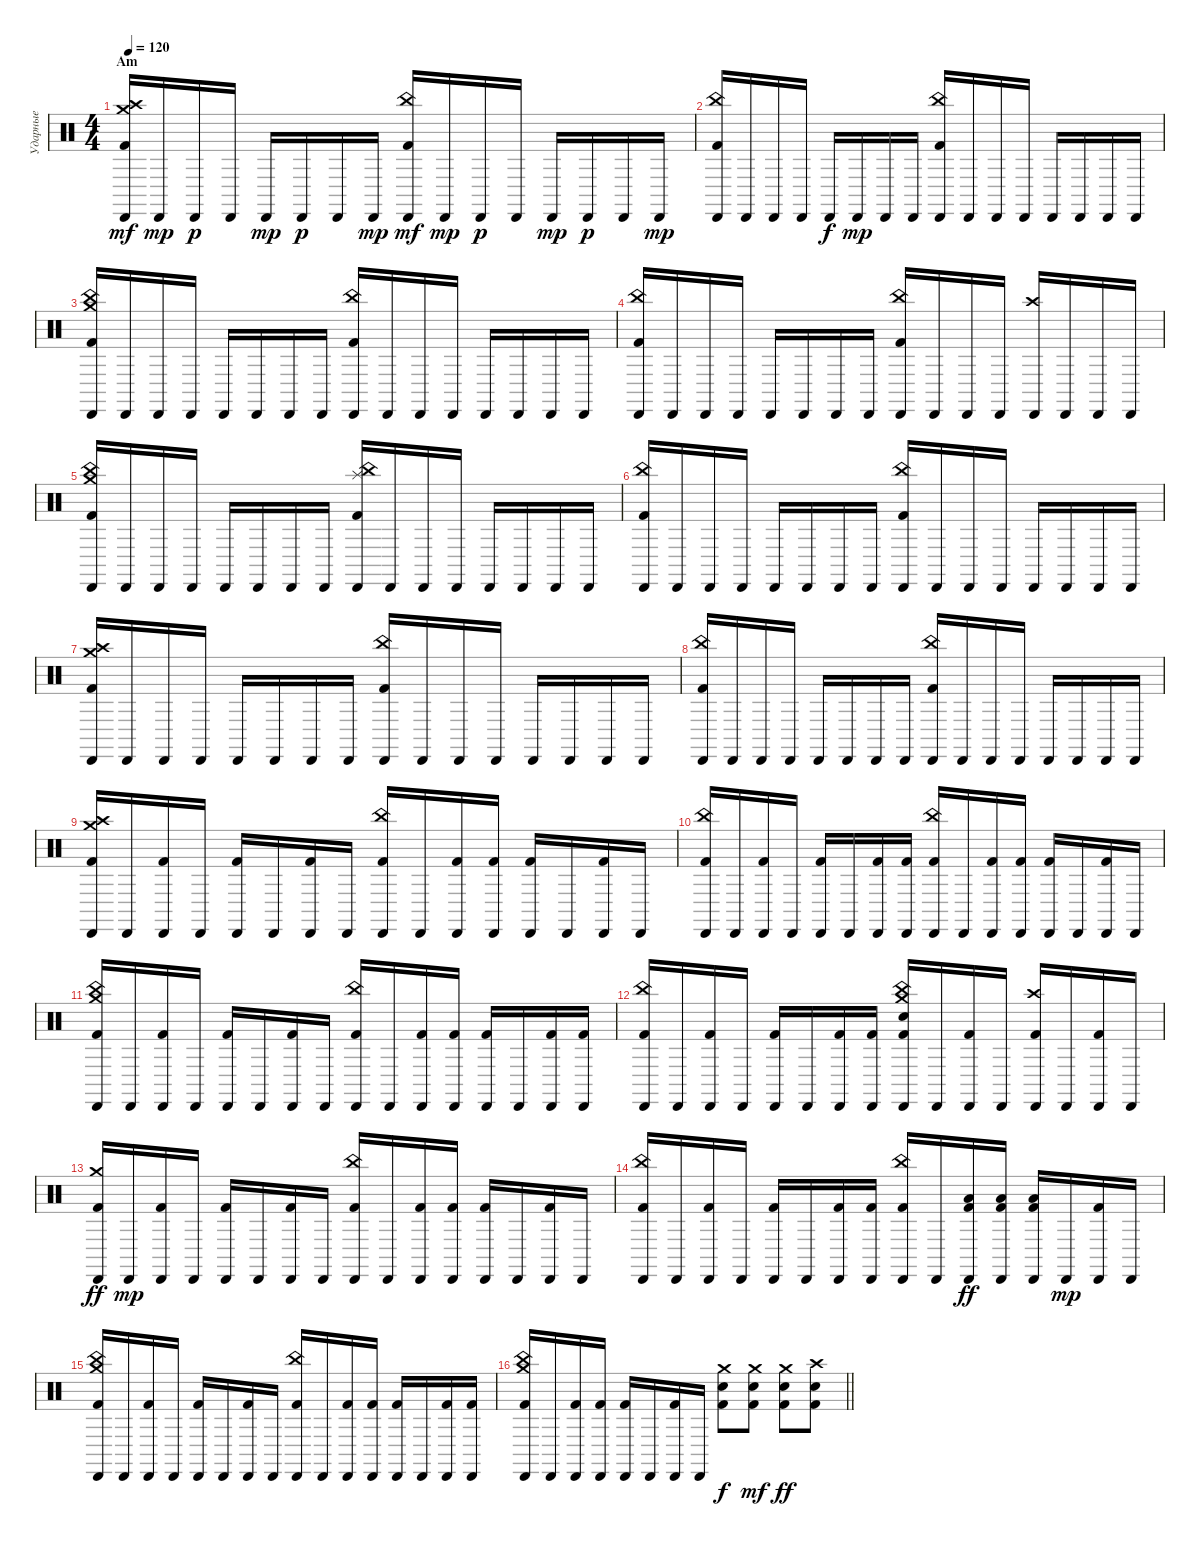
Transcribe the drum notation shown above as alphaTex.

\track ("Ударные" "Ударные") {instrument percussion}
\staff {score}
\articulation defaults
\ts (4 4)
\section ("" "Am")
\tempo 120
\clef neutral
\ks aminor
("Cabasa (hit)" "Crash medium (hit)" "Kick (hit) 2" "Crash high (hit)").16{dy mf} "Cabasa (hit)".16{dy mp} "Cabasa (hit)".16{dy p} "Cabasa (hit)".16 "Cabasa (hit)".16{dy mp} "Cabasa (hit)".16{dy p} "Cabasa (hit)".16 "Cabasa (hit)".16{dy mp} ("Cabasa (hit)" "China (hit)" "Kick (hit) 2").16{dy mf} "Cabasa (hit)".16{dy mp} "Cabasa (hit)".16{dy p} "Cabasa (hit)".16 "Cabasa (hit)".16{dy mp} "Cabasa (hit)".16{dy p} "Cabasa (hit)".16 "Cabasa (hit)".16{dy mp} |
("Cabasa (hit)" "China (hit)" "Kick (hit) 2").16 "Cabasa (hit)".16 "Cabasa (hit)".16 "Cabasa (hit)".16 "Cabasa (hit)".16{dy f} "Cabasa (hit)".16{dy mp} "Cabasa (hit)".16 "Cabasa (hit)".16 ("Cabasa (hit)" "China (hit)" "Kick (hit) 2").16 "Cabasa (hit)".16 "Cabasa (hit)".16 "Cabasa (hit)".16 "Cabasa (hit)".16 "Cabasa (hit)".16 "Cabasa (hit)".16 "Cabasa (hit)".16 |
("Cabasa (hit)" "Crash medium (hit)" "Kick (hit) 2" "China (hit)").16 "Cabasa (hit)".16 "Cabasa (hit)".16 "Cabasa (hit)".16 "Cabasa (hit)".16 "Cabasa (hit)".16 "Cabasa (hit)".16 "Cabasa (hit)".16 ("Cabasa (hit)" "China (hit)" "Kick (hit) 2").16 "Cabasa (hit)".16 "Cabasa (hit)".16 "Cabasa (hit)".16 "Cabasa (hit)".16 "Cabasa (hit)".16 "Cabasa (hit)".16 "Cabasa (hit)".16 |
("Cabasa (hit)" "China (hit)" "Kick (hit) 2").16 "Cabasa (hit)".16 "Cabasa (hit)".16 "Cabasa (hit)".16 "Cabasa (hit)".16 "Cabasa (hit)".16 "Cabasa (hit)".16 "Cabasa (hit)".16 ("Cabasa (hit)" "China (hit)" "Kick (hit) 2").16 "Cabasa (hit)".16 "Cabasa (hit)".16 "Cabasa (hit)".16 ("Cabasa (hit)" "Crash high (hit)").16 "Cabasa (hit)".16 "Cabasa (hit)".16 "Cabasa (hit)".16 |
("Cabasa (hit)" "Crash medium (hit)" "Kick (hit) 2" "China (hit)").16 "Cabasa (hit)".16 "Cabasa (hit)".16 "Cabasa (hit)".16 "Cabasa (hit)".16 "Cabasa (hit)".16 "Cabasa (hit)".16 "Cabasa (hit)".16 ("Cabasa (hit)" "China (hit)" "Kick (hit) 2" "Splash (hit)").16 "Cabasa (hit)".16 "Cabasa (hit)".16 "Cabasa (hit)".16 "Cabasa (hit)".16 "Cabasa (hit)".16 "Cabasa (hit)".16 "Cabasa (hit)".16 |
("Cabasa (hit)" "China (hit)" "Kick (hit) 2").16 "Cabasa (hit)".16 "Cabasa (hit)".16 "Cabasa (hit)".16 "Cabasa (hit)".16 "Cabasa (hit)".16 "Cabasa (hit)".16 "Cabasa (hit)".16 ("Cabasa (hit)" "China (hit)" "Kick (hit) 2").16 "Cabasa (hit)".16 "Cabasa (hit)".16 "Cabasa (hit)".16 "Cabasa (hit)".16 "Cabasa (hit)".16 "Cabasa (hit)".16 "Cabasa (hit)".16 |
("Cabasa (hit)" "Crash medium (hit)" "Kick (hit) 2" "Crash high (hit)").16 "Cabasa (hit)".16 "Cabasa (hit)".16 "Cabasa (hit)".16 "Cabasa (hit)".16 "Cabasa (hit)".16 "Cabasa (hit)".16 "Cabasa (hit)".16 ("Cabasa (hit)" "China (hit)" "Kick (hit) 2").16 "Cabasa (hit)".16 "Cabasa (hit)".16 "Cabasa (hit)".16 "Cabasa (hit)".16 "Cabasa (hit)".16 "Cabasa (hit)".16 "Cabasa (hit)".16 |
("Cabasa (hit)" "China (hit)" "Kick (hit) 2").16 "Cabasa (hit)".16 "Cabasa (hit)".16 "Cabasa (hit)".16 "Cabasa (hit)".16 "Cabasa (hit)".16 "Cabasa (hit)".16 "Cabasa (hit)".16 ("Cabasa (hit)" "China (hit)" "Kick (hit) 2").16 "Cabasa (hit)".16 "Cabasa (hit)".16 "Cabasa (hit)".16 "Cabasa (hit)".16 "Cabasa (hit)".16 "Cabasa (hit)".16 "Cabasa (hit)".16 |
("Cabasa (hit)" "Crash medium (hit)" "Kick (hit) 2" "Crash high (hit)").16{volume 10} "Cabasa (hit)".16 ("Cabasa (hit)" "Kick (hit) 2").16 "Cabasa (hit)".16 ("Cabasa (hit)" "Kick (hit) 2").16 "Cabasa (hit)".16 ("Cabasa (hit)" "Kick (hit) 2").16 "Cabasa (hit)".16 ("Cabasa (hit)" "China (hit)" "Kick (hit) 2").16 "Cabasa (hit)".16 ("Cabasa (hit)" "Kick (hit) 2").16 ("Cabasa (hit)" "Kick (hit) 2").16 ("Cabasa (hit)" "Kick (hit) 2").16 "Cabasa (hit)".16 ("Cabasa (hit)" "Kick (hit) 2").16 "Cabasa (hit)".16 |
("Cabasa (hit)" "China (hit)" "Kick (hit) 2").16 "Cabasa (hit)".16 ("Cabasa (hit)" "Kick (hit) 2").16 "Cabasa (hit)".16 ("Cabasa (hit)" "Kick (hit) 2").16 "Cabasa (hit)".16 ("Cabasa (hit)" "Kick (hit) 2").16 ("Cabasa (hit)" "Kick (hit) 2").16 ("Cabasa (hit)" "China (hit)" "Kick (hit) 2").16 "Cabasa (hit)".16 ("Cabasa (hit)" "Kick (hit) 2").16 ("Cabasa (hit)" "Kick (hit) 2").16 ("Cabasa (hit)" "Kick (hit) 2").16 "Cabasa (hit)".16 ("Cabasa (hit)" "Kick (hit) 2").16 "Cabasa (hit)".16 |
("Cabasa (hit)" "China (hit)" "Kick (hit) 2" "Crash medium (hit)").16 "Cabasa (hit)".16 ("Cabasa (hit)" "Kick (hit) 2").16 "Cabasa (hit)".16 ("Cabasa (hit)" "Kick (hit) 2").16 "Cabasa (hit)".16 ("Cabasa (hit)" "Kick (hit) 2").16 "Cabasa (hit)".16 ("Cabasa (hit)" "China (hit)" "Kick (hit) 2").16 "Cabasa (hit)".16 ("Cabasa (hit)" "Kick (hit) 2").16 ("Cabasa (hit)" "Kick (hit) 2").16 ("Cabasa (hit)" "Kick (hit) 2").16 "Cabasa (hit)".16 ("Cabasa (hit)" "Kick (hit) 2").16 ("Cabasa (hit)" "Kick (hit) 2").16 |
("Cabasa (hit)" "China (hit)" "Kick (hit) 2").16 "Cabasa (hit)".16 ("Cabasa (hit)" "Kick (hit) 2").16 "Cabasa (hit)".16 ("Cabasa (hit)" "Kick (hit) 2").16 "Cabasa (hit)".16 ("Cabasa (hit)" "Kick (hit) 2").16 ("Cabasa (hit)" "Kick (hit) 2").16 ("Cabasa (hit)" "China (hit)" "Kick (hit) 2" "Electric Snare (hit)" "Crash medium (hit)").16 "Cabasa (hit)".16 ("Cabasa (hit)" "Kick (hit) 2").16 "Cabasa (hit)".16 ("Cabasa (hit)" "Crash high (hit)" "Kick (hit) 2").16 "Cabasa (hit)".16 ("Cabasa (hit)" "Kick (hit) 2").16 "Cabasa (hit)".16 |
("Cabasa (hit)" "Crash medium (hit)" "Kick (hit) 2").16{dy ff} "Cabasa (hit)".16{dy mp} ("Cabasa (hit)" "Kick (hit) 2").16 "Cabasa (hit)".16 ("Cabasa (hit)" "Kick (hit) 2").16 "Cabasa (hit)".16 ("Cabasa (hit)" "Kick (hit) 2").16 "Cabasa (hit)".16 ("Cabasa (hit)" "China (hit)" "Kick (hit) 2").16 "Cabasa (hit)".16 ("Cabasa (hit)" "Kick (hit) 2").16 ("Cabasa (hit)" "Kick (hit) 2").16 ("Cabasa (hit)" "Kick (hit) 2").16 "Cabasa (hit)".16 ("Cabasa (hit)" "Kick (hit) 2").16 "Cabasa (hit)".16 |
("Cabasa (hit)" "China (hit)" "Kick (hit) 2").16 "Cabasa (hit)".16 ("Cabasa (hit)" "Kick (hit) 2").16 "Cabasa (hit)".16 ("Cabasa (hit)" "Kick (hit) 2").16 "Cabasa (hit)".16 ("Cabasa (hit)" "Kick (hit) 2").16 ("Cabasa (hit)" "Kick (hit) 2").16 ("Cabasa (hit)" "China (hit)" "Kick (hit) 2").16 "Cabasa (hit)".16 ("Cabasa (hit)" "Low Tom (hit)" "Kick (hit) 2").16{dy ff} ("Cabasa (hit)" "Low Tom (hit)" "Kick (hit) 2").16 ("Cabasa (hit)" "Low Tom (hit)" "Kick (hit) 2").16 "Cabasa (hit)".16{dy mp} ("Cabasa (hit)" "Kick (hit) 2").16 "Cabasa (hit)".16 |
("Cabasa (hit)" "China (hit)" "Kick (hit) 2" "Crash medium (hit)").16 "Cabasa (hit)".16 ("Cabasa (hit)" "Kick (hit) 2").16 "Cabasa (hit)".16 ("Cabasa (hit)" "Kick (hit) 2").16 "Cabasa (hit)".16 ("Cabasa (hit)" "Kick (hit) 2").16 "Cabasa (hit)".16 ("Cabasa (hit)" "China (hit)" "Kick (hit) 2").16 "Cabasa (hit)".16 ("Cabasa (hit)" "Kick (hit) 2").16 ("Cabasa (hit)" "Kick (hit) 2").16 ("Cabasa (hit)" "Kick (hit) 2").16 "Cabasa (hit)".16 ("Cabasa (hit)" "Kick (hit) 2").16 ("Cabasa (hit)" "Kick (hit) 2").16 |
\barLineRight lightlight
("Cabasa (hit)" "China (hit)" "Kick (hit) 2" "Crash medium (hit)").16 "Cabasa (hit)".16 ("Cabasa (hit)" "Kick (hit) 2").16 ("Cabasa (hit)" "Kick (hit) 2").16 ("Cabasa (hit)" "Kick (hit) 2").16 "Cabasa (hit)".16 ("Cabasa (hit)" "Kick (hit) 2").16 "Cabasa (hit)".16 ("Kick (hit) 2" "Electric Snare (hit)" "Crash medium (hit)").8{dy f} ("Kick (hit) 2" "Electric Snare (hit)" "Crash medium (hit)").8{dy mf} ("Kick (hit) 2" "Electric Snare (hit)" "Crash medium (hit)").8{dy ff} ("Kick (hit) 2" "Electric Snare (hit)" "Crash high (hit)").8
